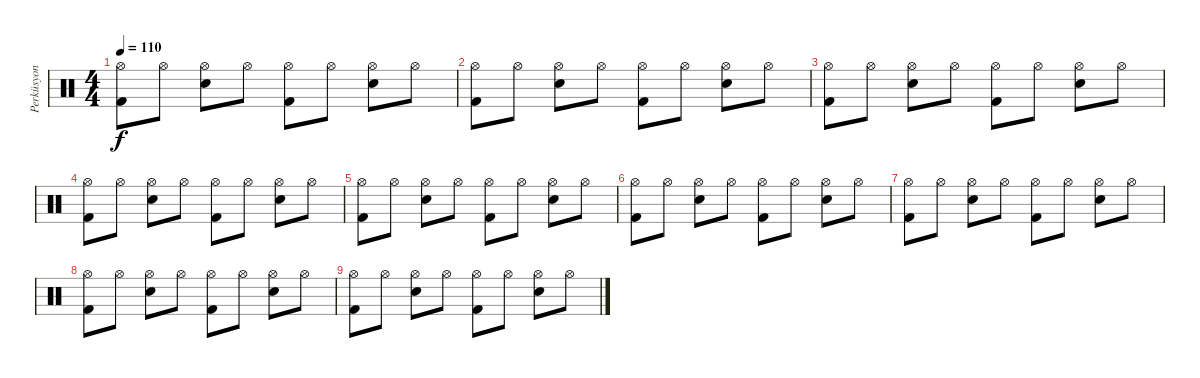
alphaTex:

\track ("Perküsyon" "Perküsyon") {instrument percussion}
\staff {score}
\articulation defaults
\ts (4 4)
\tempo 110
\clef neutral
\ks c
("Hi-Hat (open)" "Kick (hit) 2").8{dy f} "Hi-Hat (open)".8 ("Hi-Hat (open)" "Snare (hit) 2").8 "Hi-Hat (open)".8 ("Hi-Hat (open)" "Kick (hit) 2").8 "Hi-Hat (open)".8 ("Hi-Hat (open)" "Snare (hit) 2").8 "Hi-Hat (open)".8 |
("Hi-Hat (open)" "Kick (hit) 2").8 "Hi-Hat (open)".8 ("Hi-Hat (open)" "Snare (hit) 2").8 "Hi-Hat (open)".8 ("Hi-Hat (open)" "Kick (hit) 2").8 "Hi-Hat (open)".8 ("Hi-Hat (open)" "Snare (hit) 2").8 "Hi-Hat (open)".8 |
("Hi-Hat (open)" "Kick (hit) 2").8 "Hi-Hat (open)".8 ("Hi-Hat (open)" "Snare (hit) 2").8 "Hi-Hat (open)".8 ("Hi-Hat (open)" "Kick (hit) 2").8 "Hi-Hat (open)".8 ("Hi-Hat (open)" "Snare (hit) 2").8 "Hi-Hat (open)".8 |
("Hi-Hat (open)" "Kick (hit) 2").8 "Hi-Hat (open)".8 ("Hi-Hat (open)" "Snare (hit) 2").8 "Hi-Hat (open)".8 ("Hi-Hat (open)" "Kick (hit) 2").8 "Hi-Hat (open)".8 ("Hi-Hat (open)" "Snare (hit) 2").8 "Hi-Hat (open)".8 |
("Hi-Hat (open)" "Kick (hit) 2").8 "Hi-Hat (open)".8 ("Hi-Hat (open)" "Snare (hit) 2").8 "Hi-Hat (open)".8 ("Hi-Hat (open)" "Kick (hit) 2").8 "Hi-Hat (open)".8 ("Hi-Hat (open)" "Snare (hit) 2").8 "Hi-Hat (open)".8 |
("Hi-Hat (open)" "Kick (hit) 2").8 "Hi-Hat (open)".8 ("Hi-Hat (open)" "Snare (hit) 2").8 "Hi-Hat (open)".8 ("Hi-Hat (open)" "Kick (hit) 2").8 "Hi-Hat (open)".8 ("Hi-Hat (open)" "Snare (hit) 2").8 "Hi-Hat (open)".8 |
("Hi-Hat (open)" "Kick (hit) 2").8 "Hi-Hat (open)".8 ("Hi-Hat (open)" "Snare (hit) 2").8 "Hi-Hat (open)".8 ("Hi-Hat (open)" "Kick (hit) 2").8 "Hi-Hat (open)".8 ("Hi-Hat (open)" "Snare (hit) 2").8 "Hi-Hat (open)".8 |
("Hi-Hat (open)" "Kick (hit) 2").8 "Hi-Hat (open)".8 ("Hi-Hat (open)" "Snare (hit) 2").8 "Hi-Hat (open)".8 ("Hi-Hat (open)" "Kick (hit) 2").8 "Hi-Hat (open)".8 ("Hi-Hat (open)" "Snare (hit) 2").8 "Hi-Hat (open)".8 |
("Hi-Hat (open)" "Kick (hit) 2").8 "Hi-Hat (open)".8 ("Hi-Hat (open)" "Snare (hit) 2").8 "Hi-Hat (open)".8 ("Hi-Hat (open)" "Kick (hit) 2").8 "Hi-Hat (open)".8 ("Hi-Hat (open)" "Snare (hit) 2").8 "Hi-Hat (open)".8
